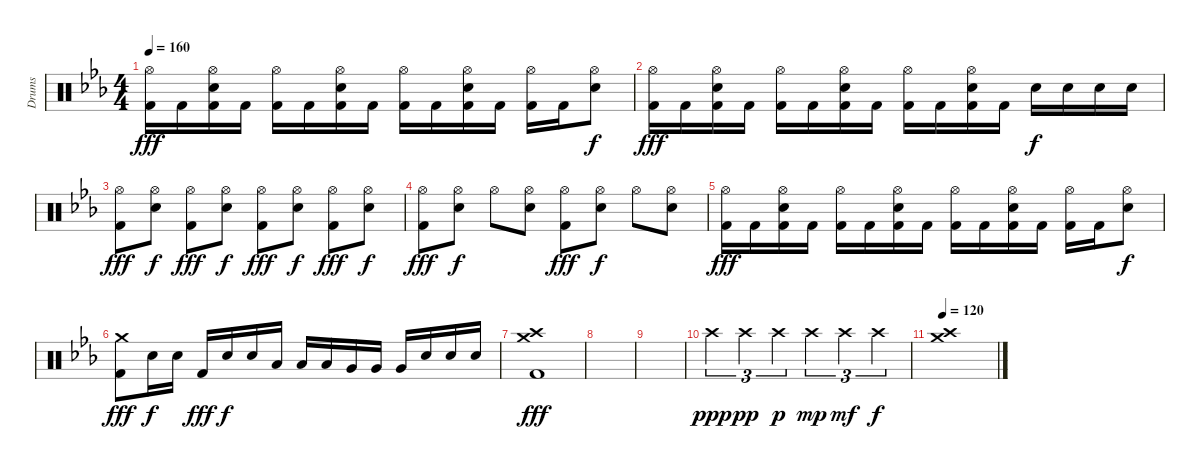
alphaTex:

\track ("Drums" "Drums") {instrument percussion}
\staff {score}
\articulation defaults
\ts (4 4)
\tempo 160
\clef neutral
\ks eb
("Hi-Hat (open)" "Kick (hit) 2").16{dy fff} "Kick (hit) 2".16 ("Hi-Hat (open)" "Electric Snare (hit)" "Kick (hit) 2").16 "Kick (hit) 2".16 ("Hi-Hat (open)" "Kick (hit) 2").16 "Kick (hit) 2".16 ("Hi-Hat (open)" "Electric Snare (hit)" "Kick (hit) 2").16 "Kick (hit) 2".16 ("Hi-Hat (open)" "Kick (hit) 2").16 "Kick (hit) 2".16 ("Hi-Hat (open)" "Electric Snare (hit)" "Kick (hit) 2").16 "Kick (hit) 2".16 ("Hi-Hat (open)" "Kick (hit) 2").16 "Kick (hit) 2".16 ("Hi-Hat (open)" "Electric Snare (hit)").8{dy f} |
("Hi-Hat (open)" "Kick (hit) 2").16{dy fff} "Kick (hit) 2".16 ("Hi-Hat (open)" "Electric Snare (hit)" "Kick (hit) 2").16 "Kick (hit) 2".16 ("Hi-Hat (open)" "Kick (hit) 2").16 "Kick (hit) 2".16 ("Hi-Hat (open)" "Electric Snare (hit)" "Kick (hit) 2").16 "Kick (hit) 2".16 ("Hi-Hat (open)" "Kick (hit) 2").16 "Kick (hit) 2".16 ("Hi-Hat (open)" "Electric Snare (hit)" "Kick (hit) 2").16 "Kick (hit) 2".16 "Electric Snare (hit)".16{dy f} "Electric Snare (hit)".16 "Electric Snare (hit)".16 "Electric Snare (hit)".16 |
("Hi-Hat (open)" "Kick (hit) 2").8{dy fff} ("Hi-Hat (open)" "Electric Snare (hit)").8{dy f} ("Hi-Hat (open)" "Kick (hit) 2").8{dy fff} ("Hi-Hat (open)" "Electric Snare (hit)").8{dy f} ("Hi-Hat (open)" "Kick (hit) 2").8{dy fff} ("Hi-Hat (open)" "Electric Snare (hit)").8{dy f} ("Hi-Hat (open)" "Kick (hit) 2").8{dy fff} ("Hi-Hat (open)" "Electric Snare (hit)").8{dy f} |
("Hi-Hat (open)" "Kick (hit) 2").8{dy fff} ("Hi-Hat (open)" "Electric Snare (hit)").8{dy f} "Hi-Hat (open)".8 ("Hi-Hat (open)" "Electric Snare (hit)").8 ("Hi-Hat (open)" "Kick (hit) 2").8{dy fff} ("Hi-Hat (open)" "Electric Snare (hit)").8{dy f} "Hi-Hat (open)".8 ("Hi-Hat (open)" "Electric Snare (hit)").8 |
("Hi-Hat (open)" "Kick (hit) 2").16{dy fff} "Kick (hit) 2".16 ("Hi-Hat (open)" "Electric Snare (hit)" "Kick (hit) 2").16 "Kick (hit) 2".16 ("Hi-Hat (open)" "Kick (hit) 2").16 "Kick (hit) 2".16 ("Hi-Hat (open)" "Electric Snare (hit)" "Kick (hit) 2").16 "Kick (hit) 2".16 ("Hi-Hat (open)" "Kick (hit) 2").16 "Kick (hit) 2".16 ("Hi-Hat (open)" "Electric Snare (hit)" "Kick (hit) 2").16 "Kick (hit) 2".16 ("Hi-Hat (open)" "Kick (hit) 2").16 "Kick (hit) 2".16 ("Hi-Hat (open)" "Electric Snare (hit)").8{dy f} |
("Crash medium (hit)" "Kick (hit) 2").8{dy fff} "Electric Snare (hit)".16{dy f} "Electric Snare (hit)".16 "Kick (hit) 2".16{dy fff} "Electric Snare (hit)".16{dy f} "Electric Snare (hit)".16 "Low Tom (hit)".16 "Low Tom (hit)".16 "Low Tom (hit)".16 "Very Low Tom (hit)".16 "Very Low Tom (hit)".16 "Very Low Tom (hit)".16 "Electric Snare (hit)".16 "Electric Snare (hit)".16 "Electric Snare (hit)".16 |
("Crash high (hit)" "Crash medium (hit)" "Kick (hit) 2").1{dy fff} |
|
|
"Crash high (hit)".4{tu (3 2) dy ppp} "Crash high (hit)".4{tu (3 2) dy pp} "Crash high (hit)".4{tu (3 2) dy p} "Crash high (hit)".4{tu (3 2) dy mp} "Crash high (hit)".4{tu (3 2) dy mf} "Crash high (hit)".4{tu (3 2) dy f} |
\tempo 120
("Crash high (hit)" "Crash medium (hit)").1
